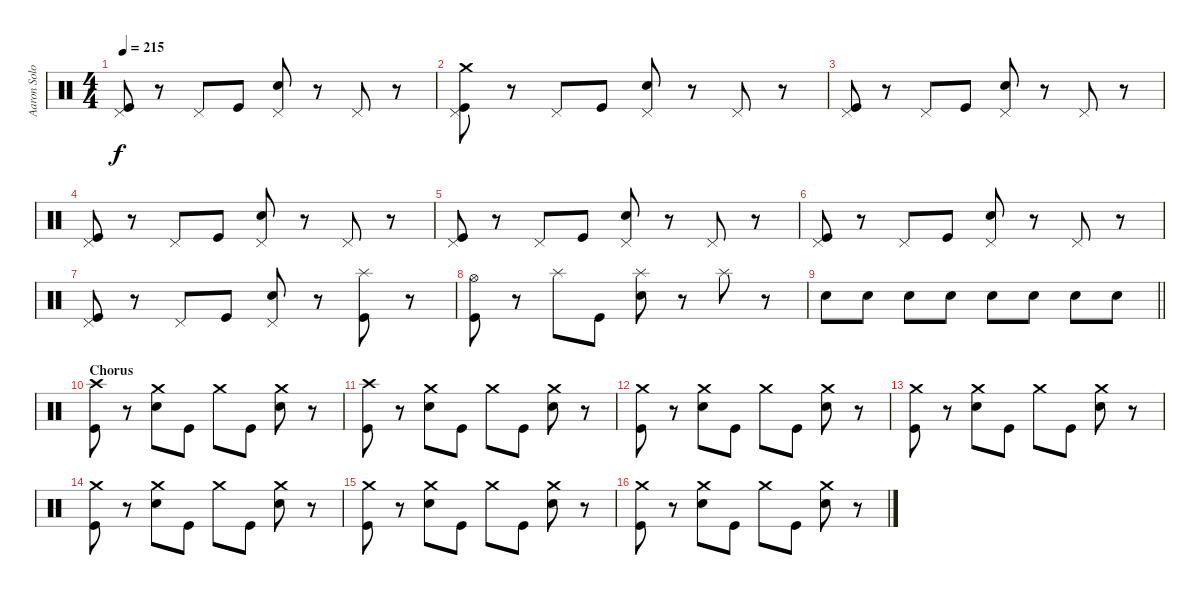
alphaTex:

\track ("Aaron Solowoniuk" "Aaron Solo") {instrument percussion}
\staff {score}
\articulation defaults
\ts (4 4)
\tempo 215
\clef neutral
\ks c
("Pedal Hi-Hat (hit)" "Kick (hit)").8{dy f} r.8 "Pedal Hi-Hat (hit)".8 "Kick (hit)".8 ("Pedal Hi-Hat (hit)" "Electric Snare (hit)").8 r.8 "Pedal Hi-Hat (hit)".8 r.8 |
("Crash medium (hit)" "Pedal Hi-Hat (hit)" "Kick (hit)").8 r.8 "Pedal Hi-Hat (hit)".8 "Kick (hit)".8 ("Pedal Hi-Hat (hit)" "Electric Snare (hit)").8 r.8 "Pedal Hi-Hat (hit)".8 r.8 |
("Pedal Hi-Hat (hit)" "Kick (hit)").8 r.8 "Pedal Hi-Hat (hit)".8 "Kick (hit)".8 ("Pedal Hi-Hat (hit)" "Electric Snare (hit)").8 r.8 "Pedal Hi-Hat (hit)".8 r.8 |
("Pedal Hi-Hat (hit)" "Kick (hit)").8 r.8 "Pedal Hi-Hat (hit)".8 "Kick (hit)".8 ("Pedal Hi-Hat (hit)" "Electric Snare (hit)").8 r.8 "Pedal Hi-Hat (hit)".8 r.8 |
("Pedal Hi-Hat (hit)" "Kick (hit)").8 r.8 "Pedal Hi-Hat (hit)".8 "Kick (hit)".8 ("Pedal Hi-Hat (hit)" "Electric Snare (hit)").8 r.8 "Pedal Hi-Hat (hit)".8 r.8 |
("Pedal Hi-Hat (hit)" "Kick (hit)").8 r.8 "Pedal Hi-Hat (hit)".8 "Kick (hit)".8 ("Pedal Hi-Hat (hit)" "Electric Snare (hit)").8 r.8 "Pedal Hi-Hat (hit)".8 r.8 |
("Pedal Hi-Hat (hit)" "Kick (hit)").8 r.8 "Pedal Hi-Hat (hit)".8 "Kick (hit)".8 ("Pedal Hi-Hat (hit)" "Electric Snare (hit)").8 r.8 ("Splash (hit)" "Kick (hit)").8 r.8 |
("Hi-Hat (open)" "Kick (hit)").8 r.8 "Splash (hit)".8 "Kick (hit)".8 ("Splash (hit)" "Electric Snare (hit)").8 r.8 "Splash (hit)".8 r.8 |
\barLineRight lightlight "Electric Snare (hit)".8 "Electric Snare (hit)".8 "Electric Snare (hit)".8 "Electric Snare (hit)".8 "Electric Snare (hit)".8 "Electric Snare (hit)".8 "Electric Snare (hit)".8 "Electric Snare (hit)".8
|
\section ("" "Chorus")
("Crash high (hit)" "Kick (hit)").8 r.8 ("Crash medium (hit)" "Electric Snare (hit)").8 "Kick (hit)".8 "Crash medium (hit)".8 "Kick (hit)".8 ("Crash medium (hit)" "Electric Snare (hit)").8 r.8 |
("Crash high (hit)" "Kick (hit)").8 r.8 ("Crash medium (hit)" "Electric Snare (hit)").8 "Kick (hit)".8 "Crash medium (hit)".8 "Kick (hit)".8 ("Crash medium (hit)" "Electric Snare (hit)").8 r.8 |
("Crash medium (hit)" "Kick (hit)").8 r.8 ("Crash medium (hit)" "Electric Snare (hit)").8 "Kick (hit)".8 "Crash medium (hit)".8 "Kick (hit)".8 ("Crash medium (hit)" "Electric Snare (hit)").8 r.8 |
("Crash medium (hit)" "Kick (hit)").8 r.8 ("Crash medium (hit)" "Electric Snare (hit)").8 "Kick (hit)".8 "Crash medium (hit)".8 "Kick (hit)".8 ("Crash medium (hit)" "Electric Snare (hit)").8 r.8 |
("Crash medium (hit)" "Kick (hit)").8 r.8 ("Crash medium (hit)" "Electric Snare (hit)").8 "Kick (hit)".8 "Crash medium (hit)".8 "Kick (hit)".8 ("Crash medium (hit)" "Electric Snare (hit)").8 r.8 |
("Crash medium (hit)" "Kick (hit)").8 r.8 ("Crash medium (hit)" "Electric Snare (hit)").8 "Kick (hit)".8 "Crash medium (hit)".8 "Kick (hit)".8 ("Crash medium (hit)" "Electric Snare (hit)").8 r.8 |
("Crash medium (hit)" "Kick (hit)").8 r.8 ("Crash medium (hit)" "Electric Snare (hit)").8 "Kick (hit)".8 "Crash medium (hit)".8 "Kick (hit)".8 ("Crash medium (hit)" "Electric Snare (hit)").8 r.8
